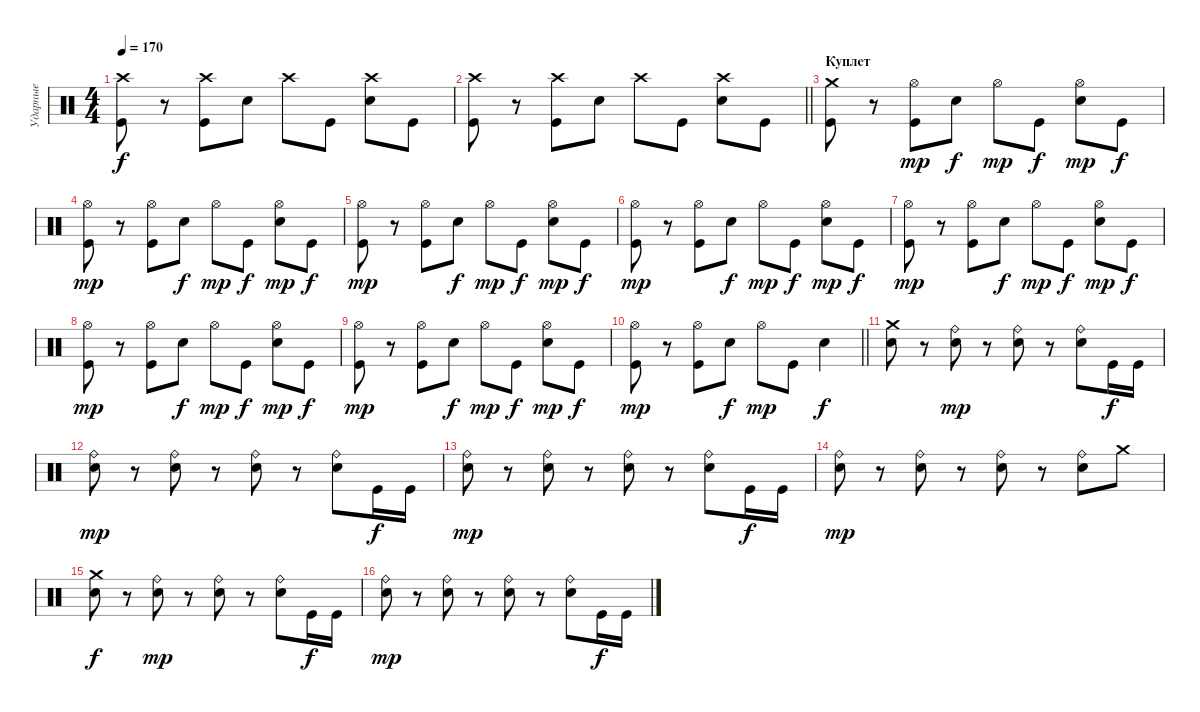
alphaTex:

\track ("Ударные" "Ударные") {instrument percussion}
\staff {score}
\articulation defaults
\ts (4 4)
\tempo 170
\clef neutral
\ks c
("Crash high (hit)" "Kick (hit)").8{dy f} r.8 ("Crash high (hit)" "Kick (hit)").8 "Electric Snare (hit)".8 "Crash high (hit)".8 "Kick (hit)".8 ("Crash high (hit)" "Electric Snare (hit)").8 "Kick (hit)".8 |
\barLineRight lightlight
("Crash high (hit)" "Kick (hit)").8 r.8 ("Crash high (hit)" "Kick (hit)").8 "Electric Snare (hit)".8 "Crash high (hit)".8 "Kick (hit)".8 ("Crash high (hit)" "Electric Snare (hit)").8 "Kick (hit)".8 |
\section ("" "Куплет")
("Crash medium (hit)" "Kick (hit)").8 r.8 ("Hi-Hat (open)" "Kick (hit)").8{dy mp} "Electric Snare (hit)".8{dy f} "Hi-Hat (open)".8{dy mp} "Kick (hit)".8{dy f} ("Hi-Hat (open)" "Electric Snare (hit)").8{dy mp} "Kick (hit)".8{dy f} |
("Hi-Hat (open)" "Kick (hit)").8{dy mp} r.8 ("Hi-Hat (open)" "Kick (hit)").8 "Electric Snare (hit)".8{dy f} "Hi-Hat (open)".8{dy mp} "Kick (hit)".8{dy f} ("Hi-Hat (open)" "Electric Snare (hit)").8{dy mp} "Kick (hit)".8{dy f} |
("Hi-Hat (open)" "Kick (hit)").8{dy mp} r.8 ("Hi-Hat (open)" "Kick (hit)").8 "Electric Snare (hit)".8{dy f} "Hi-Hat (open)".8{dy mp} "Kick (hit)".8{dy f} ("Hi-Hat (open)" "Electric Snare (hit)").8{dy mp} "Kick (hit)".8{dy f} |
("Hi-Hat (open)" "Kick (hit)").8{dy mp} r.8 ("Hi-Hat (open)" "Kick (hit)").8 "Electric Snare (hit)".8{dy f} "Hi-Hat (open)".8{dy mp} "Kick (hit)".8{dy f} ("Hi-Hat (open)" "Electric Snare (hit)").8{dy mp} "Kick (hit)".8{dy f} |
("Hi-Hat (open)" "Kick (hit)").8{dy mp} r.8 ("Hi-Hat (open)" "Kick (hit)").8 "Electric Snare (hit)".8{dy f} "Hi-Hat (open)".8{dy mp} "Kick (hit)".8{dy f} ("Hi-Hat (open)" "Electric Snare (hit)").8{dy mp} "Kick (hit)".8{dy f} |
("Hi-Hat (open)" "Kick (hit)").8{dy mp} r.8 ("Hi-Hat (open)" "Kick (hit)").8 "Electric Snare (hit)".8{dy f} "Hi-Hat (open)".8{dy mp} "Kick (hit)".8{dy f} ("Hi-Hat (open)" "Electric Snare (hit)").8{dy mp} "Kick (hit)".8{dy f} |
("Hi-Hat (open)" "Kick (hit)").8{dy mp} r.8 ("Hi-Hat (open)" "Kick (hit)").8 "Electric Snare (hit)".8{dy f} "Hi-Hat (open)".8{dy mp} "Kick (hit)".8{dy f} ("Hi-Hat (open)" "Electric Snare (hit)").8{dy mp} "Kick (hit)".8{dy f} |
\barLineRight lightlight
("Hi-Hat (open)" "Kick (hit)").8{dy mp} r.8 ("Hi-Hat (open)" "Kick (hit)").8 "Electric Snare (hit)".8{dy f} "Hi-Hat (open)".8{dy mp} "Kick (hit)".8 "Electric Snare (hit)".4{dy f} |
("Crash medium (hit)" "Electric Snare (hit)").8 r.8 ("Ride (bell)" "Electric Snare (hit)").8{dy mp} r.8 ("Ride (bell)" "Electric Snare (hit)").8 r.8 ("Ride (bell)" "Electric Snare (hit)").8 "Kick (hit)".16{dy f} "Kick (hit)".16 |
("Ride (bell)" "Electric Snare (hit)").8{dy mp} r.8 ("Ride (bell)" "Electric Snare (hit)").8 r.8 ("Ride (bell)" "Electric Snare (hit)").8 r.8 ("Ride (bell)" "Electric Snare (hit)").8 "Kick (hit)".16{dy f} "Kick (hit)".16 |
("Ride (bell)" "Electric Snare (hit)").8{dy mp} r.8 ("Ride (bell)" "Electric Snare (hit)").8 r.8 ("Ride (bell)" "Electric Snare (hit)").8 r.8 ("Ride (bell)" "Electric Snare (hit)").8 "Kick (hit)".16{dy f} "Kick (hit)".16 |
("Ride (bell)" "Electric Snare (hit)").8{dy mp} r.8 ("Ride (bell)" "Electric Snare (hit)").8 r.8 ("Ride (bell)" "Electric Snare (hit)").8 r.8 ("Ride (bell)" "Electric Snare (hit)").8 "Crash medium (hit)".8 |
("Crash medium (hit)" "Electric Snare (hit)").8{dy f} r.8 ("Ride (bell)" "Electric Snare (hit)").8{dy mp} r.8 ("Ride (bell)" "Electric Snare (hit)").8 r.8 ("Ride (bell)" "Electric Snare (hit)").8 "Kick (hit)".16{dy f} "Kick (hit)".16 |
("Ride (bell)" "Electric Snare (hit)").8{dy mp} r.8 ("Ride (bell)" "Electric Snare (hit)").8 r.8 ("Ride (bell)" "Electric Snare (hit)").8 r.8 ("Ride (bell)" "Electric Snare (hit)").8 "Kick (hit)".16{dy f} "Kick (hit)".16
